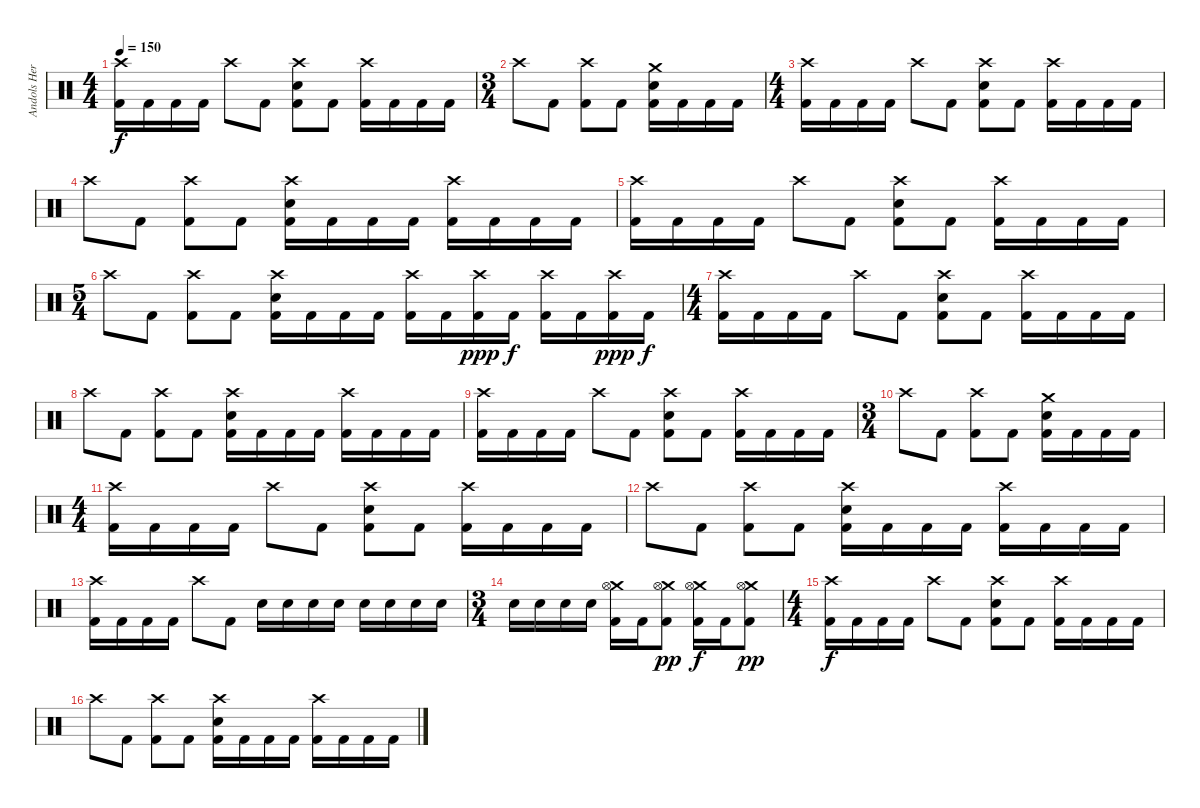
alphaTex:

\track ("Andols Herrick" "Andols Her") {instrument percussion}
\staff {score}
\articulation defaults
\ts (4 4)
\tempo 150
\clef neutral
\ks c
("Crash high (hit)" "Kick (hit) 2").16{dy f} "Kick (hit) 2".16 "Kick (hit) 2".16 "Kick (hit) 2".16 "Crash high (hit)".8 "Kick (hit) 2".8 ("Crash high (hit)" "Electric Snare (hit)" "Kick (hit) 2").8 "Kick (hit) 2".8 ("Crash high (hit)" "Kick (hit) 2").16 "Kick (hit) 2".16 "Kick (hit) 2".16 "Kick (hit) 2".16 |
\ts (3 4)
"Crash high (hit)".8 "Kick (hit) 2".8 ("Crash high (hit)" "Kick (hit) 2").8 "Kick (hit) 2".8 ("Crash medium (hit)" "Electric Snare (hit)" "Kick (hit) 2").16 "Kick (hit) 2".16 "Kick (hit) 2".16 "Kick (hit) 2".16 |
\ts (4 4)
("Crash high (hit)" "Kick (hit) 2").16 "Kick (hit) 2".16 "Kick (hit) 2".16 "Kick (hit) 2".16 "Crash high (hit)".8 "Kick (hit) 2".8 ("Crash high (hit)" "Electric Snare (hit)" "Kick (hit) 2").8 "Kick (hit) 2".8 ("Crash high (hit)" "Kick (hit) 2").16 "Kick (hit) 2".16 "Kick (hit) 2".16 "Kick (hit) 2".16 |
"Crash high (hit)".8 "Kick (hit) 2".8 ("Crash high (hit)" "Kick (hit) 2").8 "Kick (hit) 2".8 ("Crash high (hit)" "Electric Snare (hit)" "Kick (hit) 2").16 "Kick (hit) 2".16 "Kick (hit) 2".16 "Kick (hit) 2".16 ("Crash high (hit)" "Kick (hit) 2").16 "Kick (hit) 2".16 "Kick (hit) 2".16 "Kick (hit) 2".16 |
("Crash high (hit)" "Kick (hit) 2").16 "Kick (hit) 2".16 "Kick (hit) 2".16 "Kick (hit) 2".16 "Crash high (hit)".8 "Kick (hit) 2".8 ("Crash high (hit)" "Electric Snare (hit)" "Kick (hit) 2").8 "Kick (hit) 2".8 ("Crash high (hit)" "Kick (hit) 2").16 "Kick (hit) 2".16 "Kick (hit) 2".16 "Kick (hit) 2".16 |
\ts (5 4)
"Crash high (hit)".8 "Kick (hit) 2".8 ("Crash high (hit)" "Kick (hit) 2").8 "Kick (hit) 2".8 ("Crash high (hit)" "Electric Snare (hit)" "Kick (hit) 2").16 "Kick (hit) 2".16 "Kick (hit) 2".16 "Kick (hit) 2".16 ("Crash high (hit)" "Kick (hit) 2").16 "Kick (hit) 2".16 ("Crash high (hit)" "Kick (hit) 2").16{dy ppp} "Kick (hit) 2".16{dy f} ("Crash high (hit)" "Kick (hit) 2").16 "Kick (hit) 2".16 ("Crash high (hit)" "Kick (hit) 2").16{dy ppp} "Kick (hit) 2".16{dy f} |
\ts (4 4)
("Crash high (hit)" "Kick (hit) 2").16 "Kick (hit) 2".16 "Kick (hit) 2".16 "Kick (hit) 2".16 "Crash high (hit)".8 "Kick (hit) 2".8 ("Crash high (hit)" "Electric Snare (hit)" "Kick (hit) 2").8 "Kick (hit) 2".8 ("Crash high (hit)" "Kick (hit) 2").16 "Kick (hit) 2".16 "Kick (hit) 2".16 "Kick (hit) 2".16 |
"Crash high (hit)".8 "Kick (hit) 2".8 ("Crash high (hit)" "Kick (hit) 2").8 "Kick (hit) 2".8 ("Crash high (hit)" "Electric Snare (hit)" "Kick (hit) 2").16 "Kick (hit) 2".16 "Kick (hit) 2".16 "Kick (hit) 2".16 ("Crash high (hit)" "Kick (hit) 2").16 "Kick (hit) 2".16 "Kick (hit) 2".16 "Kick (hit) 2".16 |
("Crash high (hit)" "Kick (hit) 2").16 "Kick (hit) 2".16 "Kick (hit) 2".16 "Kick (hit) 2".16 "Crash high (hit)".8 "Kick (hit) 2".8 ("Crash high (hit)" "Electric Snare (hit)" "Kick (hit) 2").8 "Kick (hit) 2".8 ("Crash high (hit)" "Kick (hit) 2").16 "Kick (hit) 2".16 "Kick (hit) 2".16 "Kick (hit) 2".16 |
\ts (3 4)
"Crash high (hit)".8 "Kick (hit) 2".8 ("Crash high (hit)" "Kick (hit) 2").8 "Kick (hit) 2".8 ("Crash medium (hit)" "Electric Snare (hit)" "Kick (hit) 2").16 "Kick (hit) 2".16 "Kick (hit) 2".16 "Kick (hit) 2".16 |
\ts (4 4)
("Crash high (hit)" "Kick (hit) 2").16 "Kick (hit) 2".16 "Kick (hit) 2".16 "Kick (hit) 2".16 "Crash high (hit)".8 "Kick (hit) 2".8 ("Crash high (hit)" "Electric Snare (hit)" "Kick (hit) 2").8 "Kick (hit) 2".8 ("Crash high (hit)" "Kick (hit) 2").16 "Kick (hit) 2".16 "Kick (hit) 2".16 "Kick (hit) 2".16 |
"Crash high (hit)".8 "Kick (hit) 2".8 ("Crash high (hit)" "Kick (hit) 2").8 "Kick (hit) 2".8 ("Crash high (hit)" "Electric Snare (hit)" "Kick (hit) 2").16 "Kick (hit) 2".16 "Kick (hit) 2".16 "Kick (hit) 2".16 ("Crash high (hit)" "Kick (hit) 2").16 "Kick (hit) 2".16 "Kick (hit) 2".16 "Kick (hit) 2".16 |
("Crash high (hit)" "Kick (hit) 2").16 "Kick (hit) 2".16 "Kick (hit) 2".16 "Kick (hit) 2".16 "Crash high (hit)".8 "Kick (hit) 2".8 "Electric Snare (hit)".16 "Electric Snare (hit)".16 "Electric Snare (hit)".16 "Electric Snare (hit)".16 "Electric Snare (hit)".16 "Electric Snare (hit)".16 "Electric Snare (hit)".16 "Electric Snare (hit)".16 |
\ts (3 4)
"Electric Snare (hit)".16 "Electric Snare (hit)".16 "Electric Snare (hit)".16 "Electric Snare (hit)".16 ("Crash medium (hit)" "Hi-Hat (open)" "Kick (hit) 2").16 "Kick (hit) 2".16 ("Crash medium (hit)" "Hi-Hat (open)" "Kick (hit) 2").8{dy pp} ("Crash medium (hit)" "Hi-Hat (open)" "Kick (hit) 2").16{dy f} "Kick (hit) 2".16 ("Crash medium (hit)" "Hi-Hat (open)" "Kick (hit) 2").8{dy pp} |
\ts (4 4)
("Crash high (hit)" "Kick (hit) 2").16{dy f} "Kick (hit) 2".16 "Kick (hit) 2".16 "Kick (hit) 2".16 "Crash high (hit)".8 "Kick (hit) 2".8 ("Crash high (hit)" "Electric Snare (hit)" "Kick (hit) 2").8 "Kick (hit) 2".8 ("Crash high (hit)" "Kick (hit) 2").16 "Kick (hit) 2".16 "Kick (hit) 2".16 "Kick (hit) 2".16 |
"Crash high (hit)".8 "Kick (hit) 2".8 ("Crash high (hit)" "Kick (hit) 2").8 "Kick (hit) 2".8 ("Crash high (hit)" "Electric Snare (hit)" "Kick (hit) 2").16 "Kick (hit) 2".16 "Kick (hit) 2".16 "Kick (hit) 2".16 ("Crash high (hit)" "Kick (hit) 2").16 "Kick (hit) 2".16 "Kick (hit) 2".16 "Kick (hit) 2".16
